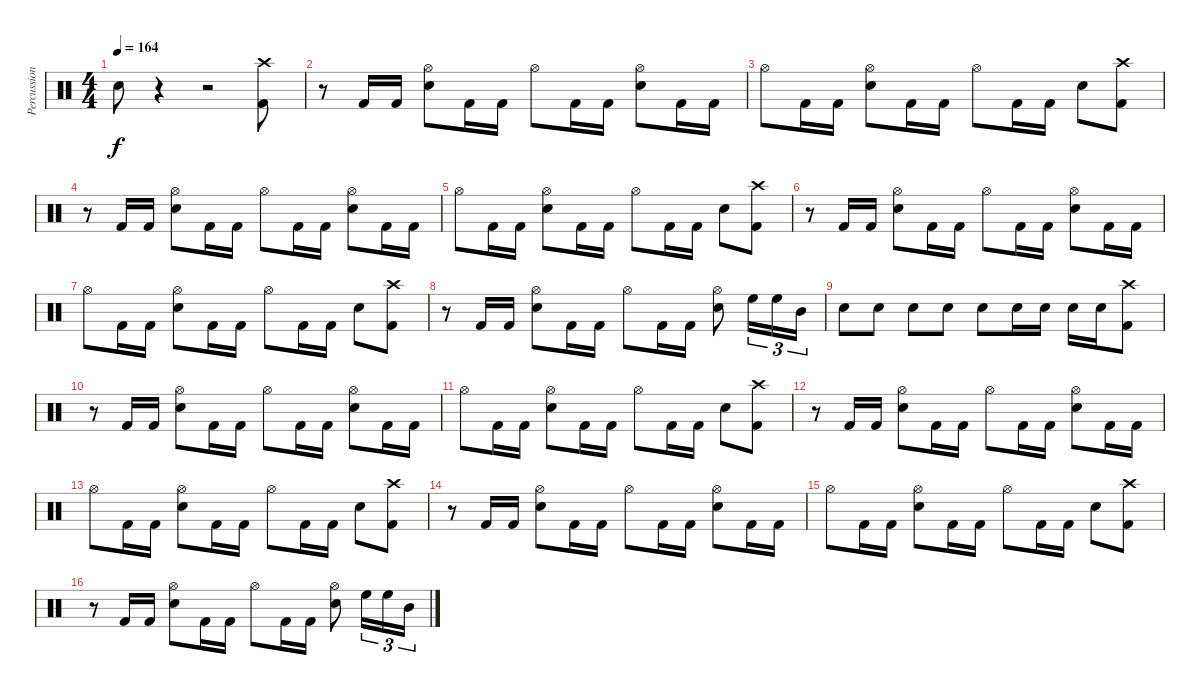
\track ("Percussion" "Percussion") {instrument percussion}
\staff {score}
\articulation defaults
\ts (4 4)
\tempo 164
\clef neutral
\ks c "Snare (hit) 2".8{dy f}
r.4 r.2 ("Crash high (hit)" "Kick (hit) 2").8 |
r.8 "Kick (hit) 2".16 "Kick (hit) 2".16 ("Hi-Hat (open)" "Snare (hit) 2").8 "Kick (hit) 2".16 "Kick (hit) 2".16 "Hi-Hat (open)".8 "Kick (hit) 2".16 "Kick (hit) 2".16 ("Hi-Hat (open)" "Snare (hit) 2").8 "Kick (hit) 2".16 "Kick (hit) 2".16 |
"Hi-Hat (open)".8 "Kick (hit) 2".16 "Kick (hit) 2".16 ("Hi-Hat (open)" "Snare (hit) 2").8 "Kick (hit) 2".16 "Kick (hit) 2".16 "Hi-Hat (open)".8 "Kick (hit) 2".16 "Kick (hit) 2".16 "Snare (hit) 2".8 ("Crash high (hit)" "Kick (hit) 2").8 |
r.8 "Kick (hit) 2".16 "Kick (hit) 2".16 ("Hi-Hat (open)" "Snare (hit) 2").8 "Kick (hit) 2".16 "Kick (hit) 2".16 "Hi-Hat (open)".8 "Kick (hit) 2".16 "Kick (hit) 2".16 ("Hi-Hat (open)" "Snare (hit) 2").8 "Kick (hit) 2".16 "Kick (hit) 2".16 |
"Hi-Hat (open)".8 "Kick (hit) 2".16 "Kick (hit) 2".16 ("Hi-Hat (open)" "Snare (hit) 2").8 "Kick (hit) 2".16 "Kick (hit) 2".16 "Hi-Hat (open)".8 "Kick (hit) 2".16 "Kick (hit) 2".16 "Snare (hit) 2".8 ("Crash high (hit)" "Kick (hit) 2").8 |
r.8 "Kick (hit) 2".16 "Kick (hit) 2".16 ("Hi-Hat (open)" "Snare (hit) 2").8 "Kick (hit) 2".16 "Kick (hit) 2".16 "Hi-Hat (open)".8 "Kick (hit) 2".16 "Kick (hit) 2".16 ("Hi-Hat (open)" "Snare (hit) 2").8 "Kick (hit) 2".16 "Kick (hit) 2".16 |
"Hi-Hat (open)".8 "Kick (hit) 2".16 "Kick (hit) 2".16 ("Hi-Hat (open)" "Snare (hit) 2").8 "Kick (hit) 2".16 "Kick (hit) 2".16 "Hi-Hat (open)".8 "Kick (hit) 2".16 "Kick (hit) 2".16 "Snare (hit) 2".8 ("Crash high (hit)" "Kick (hit) 2").8 |
r.8 "Kick (hit) 2".16 "Kick (hit) 2".16 ("Hi-Hat (open)" "Snare (hit) 2").8 "Kick (hit) 2".16 "Kick (hit) 2".16 "Hi-Hat (open)".8 "Kick (hit) 2".16 "Kick (hit) 2".16 ("Hi-Hat (open)" "Snare (hit) 2").8 "High Floor Tom (hit)".16{tu (3 2)} "High Floor Tom (hit)".16{tu (3 2)} "Mid Tom (hit)".16{tu (3 2)} |
"Snare (hit) 2".8 "Snare (hit) 2".8 "Snare (hit) 2".8 "Snare (hit) 2".8 "Snare (hit) 2".8 "Snare (hit) 2".16 "Snare (hit) 2".16 "Snare (hit) 2".16 "Snare (hit) 2".16 ("Crash high (hit)" "Kick (hit) 2").8 |
r.8 "Kick (hit) 2".16 "Kick (hit) 2".16 ("Hi-Hat (open)" "Snare (hit) 2").8 "Kick (hit) 2".16 "Kick (hit) 2".16 "Hi-Hat (open)".8 "Kick (hit) 2".16 "Kick (hit) 2".16 ("Hi-Hat (open)" "Snare (hit) 2").8 "Kick (hit) 2".16 "Kick (hit) 2".16 |
"Hi-Hat (open)".8 "Kick (hit) 2".16 "Kick (hit) 2".16 ("Hi-Hat (open)" "Snare (hit) 2").8 "Kick (hit) 2".16 "Kick (hit) 2".16 "Hi-Hat (open)".8 "Kick (hit) 2".16 "Kick (hit) 2".16 "Snare (hit) 2".8 ("Crash high (hit)" "Kick (hit) 2").8 |
r.8 "Kick (hit) 2".16 "Kick (hit) 2".16 ("Hi-Hat (open)" "Snare (hit) 2").8 "Kick (hit) 2".16 "Kick (hit) 2".16 "Hi-Hat (open)".8 "Kick (hit) 2".16 "Kick (hit) 2".16 ("Hi-Hat (open)" "Snare (hit) 2").8 "Kick (hit) 2".16 "Kick (hit) 2".16 |
"Hi-Hat (open)".8 "Kick (hit) 2".16 "Kick (hit) 2".16 ("Hi-Hat (open)" "Snare (hit) 2").8 "Kick (hit) 2".16 "Kick (hit) 2".16 "Hi-Hat (open)".8 "Kick (hit) 2".16 "Kick (hit) 2".16 "Snare (hit) 2".8 ("Crash high (hit)" "Kick (hit) 2").8 |
r.8 "Kick (hit) 2".16 "Kick (hit) 2".16 ("Hi-Hat (open)" "Snare (hit) 2").8 "Kick (hit) 2".16 "Kick (hit) 2".16 "Hi-Hat (open)".8 "Kick (hit) 2".16 "Kick (hit) 2".16 ("Hi-Hat (open)" "Snare (hit) 2").8 "Kick (hit) 2".16 "Kick (hit) 2".16 |
"Hi-Hat (open)".8 "Kick (hit) 2".16 "Kick (hit) 2".16 ("Hi-Hat (open)" "Snare (hit) 2").8 "Kick (hit) 2".16 "Kick (hit) 2".16 "Hi-Hat (open)".8 "Kick (hit) 2".16 "Kick (hit) 2".16 "Snare (hit) 2".8 ("Crash high (hit)" "Kick (hit) 2").8 |
r.8 "Kick (hit) 2".16 "Kick (hit) 2".16 ("Hi-Hat (open)" "Snare (hit) 2").8 "Kick (hit) 2".16 "Kick (hit) 2".16 "Hi-Hat (open)".8 "Kick (hit) 2".16 "Kick (hit) 2".16 ("Hi-Hat (open)" "Snare (hit) 2").8 "High Floor Tom (hit)".16{tu (3 2)} "High Floor Tom (hit)".16{tu (3 2)} "Mid Tom (hit)".16{tu (3 2)}
